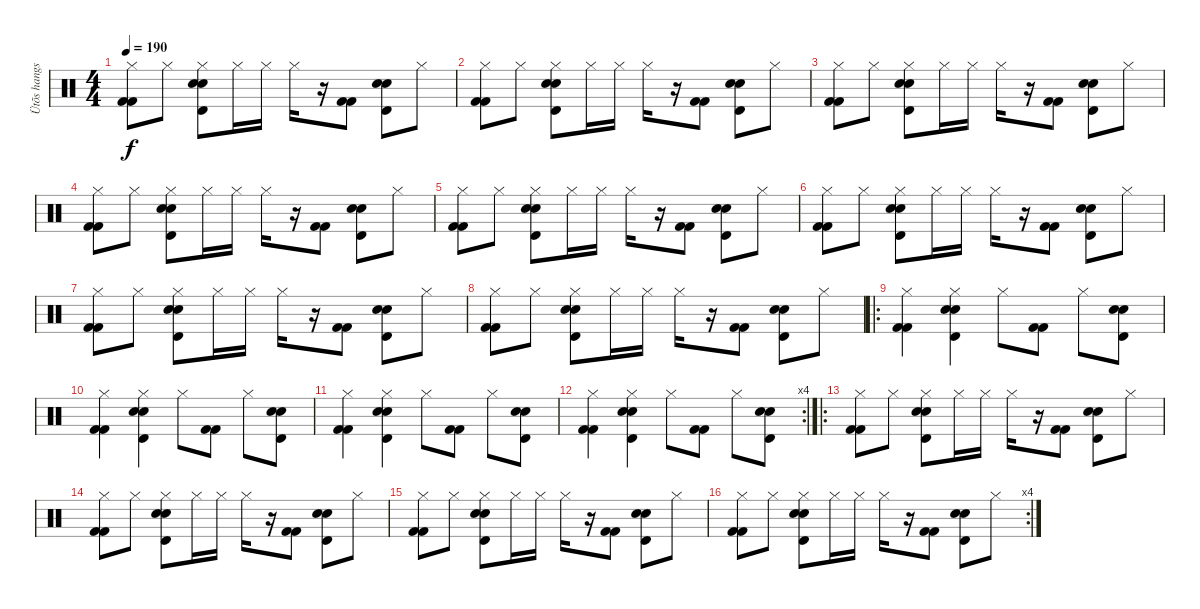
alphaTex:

\track ("Ütõs hangszer" "Ütõs hangs") {instrument percussion}
\staff {score}
\articulation defaults
\ts (4 4)
\tempo 190
\clef neutral
\ks c
("Hi-Hat (closed)" "Kick (hit) 2" "Kick (hit) 2").8{dy f} "Hi-Hat (closed)".8 ("Hi-Hat (closed)" "Timbale high (hit)" "Electric Snare (hit)" "Electric Snare (hit)").8 "Hi-Hat (closed)".16 "Hi-Hat (closed)".16 "Hi-Hat (closed)".16 r.16 ("Kick (hit) 2" "Kick (hit) 2").8 ("Timbale high (hit)" "Electric Snare (hit)" "Electric Snare (hit)").8 "Hi-Hat (closed)".8 |
("Hi-Hat (closed)" "Kick (hit) 2" "Kick (hit) 2").8 "Hi-Hat (closed)".8 ("Hi-Hat (closed)" "Timbale high (hit)" "Electric Snare (hit)" "Electric Snare (hit)").8 "Hi-Hat (closed)".16 "Hi-Hat (closed)".16 "Hi-Hat (closed)".16 r.16 ("Kick (hit) 2" "Kick (hit) 2").8 ("Timbale high (hit)" "Electric Snare (hit)" "Electric Snare (hit)").8 "Hi-Hat (closed)".8 |
("Hi-Hat (closed)" "Kick (hit) 2" "Kick (hit) 2").8 "Hi-Hat (closed)".8 ("Hi-Hat (closed)" "Timbale high (hit)" "Electric Snare (hit)" "Electric Snare (hit)").8 "Hi-Hat (closed)".16 "Hi-Hat (closed)".16 "Hi-Hat (closed)".16 r.16 ("Kick (hit) 2" "Kick (hit) 2").8 ("Timbale high (hit)" "Electric Snare (hit)" "Electric Snare (hit)").8 "Hi-Hat (closed)".8 |
("Hi-Hat (closed)" "Kick (hit) 2" "Kick (hit) 2").8 "Hi-Hat (closed)".8 ("Hi-Hat (closed)" "Timbale high (hit)" "Electric Snare (hit)" "Electric Snare (hit)").8 "Hi-Hat (closed)".16 "Hi-Hat (closed)".16 "Hi-Hat (closed)".16 r.16 ("Kick (hit) 2" "Kick (hit) 2").8 ("Timbale high (hit)" "Electric Snare (hit)" "Electric Snare (hit)").8 "Hi-Hat (closed)".8 |
("Hi-Hat (closed)" "Kick (hit) 2" "Kick (hit) 2").8 "Hi-Hat (closed)".8 ("Hi-Hat (closed)" "Timbale high (hit)" "Electric Snare (hit)" "Electric Snare (hit)").8 "Hi-Hat (closed)".16 "Hi-Hat (closed)".16 "Hi-Hat (closed)".16 r.16 ("Kick (hit) 2" "Kick (hit) 2").8 ("Timbale high (hit)" "Electric Snare (hit)" "Electric Snare (hit)").8 "Hi-Hat (closed)".8 |
("Hi-Hat (closed)" "Kick (hit) 2" "Kick (hit) 2").8 "Hi-Hat (closed)".8 ("Hi-Hat (closed)" "Timbale high (hit)" "Electric Snare (hit)" "Electric Snare (hit)").8 "Hi-Hat (closed)".16 "Hi-Hat (closed)".16 "Hi-Hat (closed)".16 r.16 ("Kick (hit) 2" "Kick (hit) 2").8 ("Timbale high (hit)" "Electric Snare (hit)" "Electric Snare (hit)").8 "Hi-Hat (closed)".8 |
("Hi-Hat (closed)" "Kick (hit) 2" "Kick (hit) 2").8 "Hi-Hat (closed)".8 ("Hi-Hat (closed)" "Timbale high (hit)" "Electric Snare (hit)" "Electric Snare (hit)").8 "Hi-Hat (closed)".16 "Hi-Hat (closed)".16 "Hi-Hat (closed)".16 r.16 ("Kick (hit) 2" "Kick (hit) 2").8 ("Timbale high (hit)" "Electric Snare (hit)" "Electric Snare (hit)").8 "Hi-Hat (closed)".8 |
("Hi-Hat (closed)" "Kick (hit) 2" "Kick (hit) 2").8 "Hi-Hat (closed)".8 ("Hi-Hat (closed)" "Timbale high (hit)" "Electric Snare (hit)" "Electric Snare (hit)").8 "Hi-Hat (closed)".16 "Hi-Hat (closed)".16 "Hi-Hat (closed)".16 r.16 ("Kick (hit) 2" "Kick (hit) 2").8 ("Timbale high (hit)" "Electric Snare (hit)" "Electric Snare (hit)").8 "Hi-Hat (closed)".8 |
\ro
("Hi-Hat (closed)" "Kick (hit) 2" "Kick (hit) 2").4 ("Hi-Hat (closed)" "Timbale high (hit)" "Electric Snare (hit)" "Electric Snare (hit)").4 "Hi-Hat (closed)".8 ("Kick (hit) 2" "Kick (hit) 2").8 "Hi-Hat (closed)".8 ("Timbale high (hit)" "Electric Snare (hit)" "Electric Snare (hit)").8 |
("Hi-Hat (closed)" "Kick (hit) 2" "Kick (hit) 2").4 ("Hi-Hat (closed)" "Timbale high (hit)" "Electric Snare (hit)" "Electric Snare (hit)").4 "Hi-Hat (closed)".8 ("Kick (hit) 2" "Kick (hit) 2").8 "Hi-Hat (closed)".8 ("Timbale high (hit)" "Electric Snare (hit)" "Electric Snare (hit)").8 |
("Hi-Hat (closed)" "Kick (hit) 2" "Kick (hit) 2").4 ("Hi-Hat (closed)" "Timbale high (hit)" "Electric Snare (hit)" "Electric Snare (hit)").4 "Hi-Hat (closed)".8 ("Kick (hit) 2" "Kick (hit) 2").8 "Hi-Hat (closed)".8 ("Timbale high (hit)" "Electric Snare (hit)" "Electric Snare (hit)").8 |
\rc 4
("Hi-Hat (closed)" "Kick (hit) 2" "Kick (hit) 2").4 ("Hi-Hat (closed)" "Timbale high (hit)" "Electric Snare (hit)" "Electric Snare (hit)").4 "Hi-Hat (closed)".8 ("Kick (hit) 2" "Kick (hit) 2").8 "Hi-Hat (closed)".8 ("Timbale high (hit)" "Electric Snare (hit)" "Electric Snare (hit)").8 |
\ro
("Hi-Hat (closed)" "Kick (hit) 2" "Kick (hit) 2").8 "Hi-Hat (closed)".8 ("Hi-Hat (closed)" "Timbale high (hit)" "Electric Snare (hit)" "Electric Snare (hit)").8 "Hi-Hat (closed)".16 "Hi-Hat (closed)".16 "Hi-Hat (closed)".16 r.16 ("Kick (hit) 2" "Kick (hit) 2").8 ("Timbale high (hit)" "Electric Snare (hit)" "Electric Snare (hit)").8 "Hi-Hat (closed)".8 |
("Hi-Hat (closed)" "Kick (hit) 2" "Kick (hit) 2").8 "Hi-Hat (closed)".8 ("Hi-Hat (closed)" "Timbale high (hit)" "Electric Snare (hit)" "Electric Snare (hit)").8 "Hi-Hat (closed)".16 "Hi-Hat (closed)".16 "Hi-Hat (closed)".16 r.16 ("Kick (hit) 2" "Kick (hit) 2").8 ("Timbale high (hit)" "Electric Snare (hit)" "Electric Snare (hit)").8 "Hi-Hat (closed)".8 |
("Hi-Hat (closed)" "Kick (hit) 2" "Kick (hit) 2").8 "Hi-Hat (closed)".8 ("Hi-Hat (closed)" "Timbale high (hit)" "Electric Snare (hit)" "Electric Snare (hit)").8 "Hi-Hat (closed)".16 "Hi-Hat (closed)".16 "Hi-Hat (closed)".16 r.16 ("Kick (hit) 2" "Kick (hit) 2").8 ("Timbale high (hit)" "Electric Snare (hit)" "Electric Snare (hit)").8 "Hi-Hat (closed)".8 |
\rc 4
("Hi-Hat (closed)" "Kick (hit) 2" "Kick (hit) 2").8 "Hi-Hat (closed)".8 ("Hi-Hat (closed)" "Timbale high (hit)" "Electric Snare (hit)" "Electric Snare (hit)").8 "Hi-Hat (closed)".16 "Hi-Hat (closed)".16 "Hi-Hat (closed)".16 r.16 ("Kick (hit) 2" "Kick (hit) 2").8 ("Timbale high (hit)" "Electric Snare (hit)" "Electric Snare (hit)").8 "Hi-Hat (closed)".8
